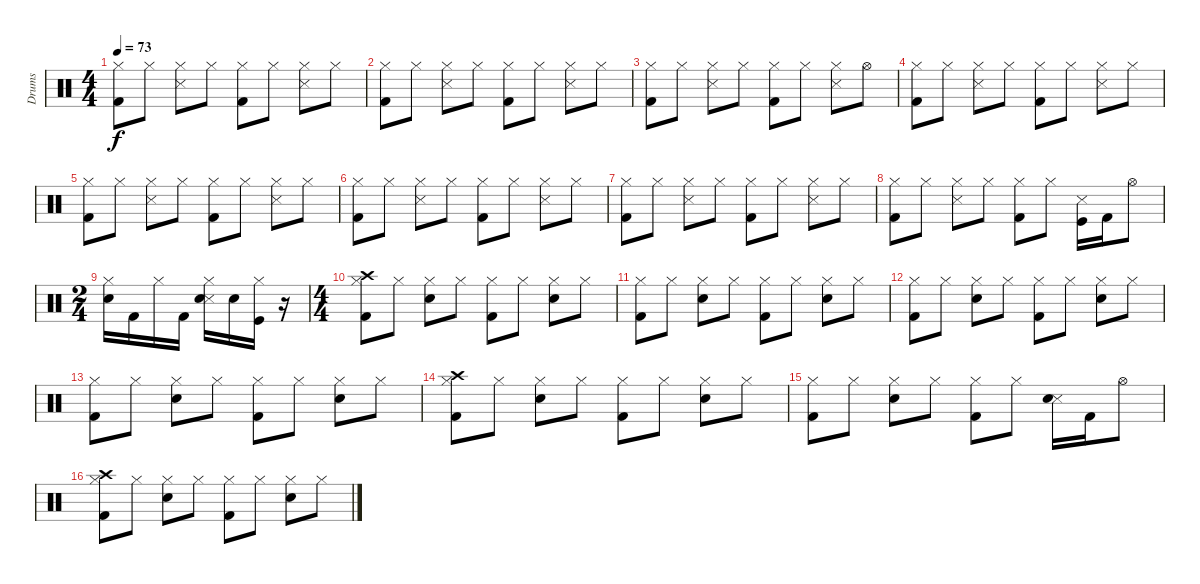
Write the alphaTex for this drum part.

\track ("Drums" "Drums") {instrument percussion}
\staff {score}
\articulation defaults
\ts (4 4)
\tempo 73
\clef neutral
\ks c
("Hi-Hat (closed)" "Kick (hit) 2").8{dy f} "Hi-Hat (closed)".8 ("Hi-Hat (closed)" "Snare (side stick) 3").8 "Hi-Hat (closed)".8 ("Hi-Hat (closed)" "Kick (hit) 2").8 "Hi-Hat (closed)".8 ("Hi-Hat (closed)" "Snare (side stick) 3").8 "Hi-Hat (closed)".8 |
("Hi-Hat (closed)" "Kick (hit) 2").8 "Hi-Hat (closed)".8 ("Hi-Hat (closed)" "Snare (side stick) 3").8 "Hi-Hat (closed)".8 ("Hi-Hat (closed)" "Kick (hit) 2").8 "Hi-Hat (closed)".8 ("Hi-Hat (closed)" "Snare (side stick) 3").8 "Hi-Hat (closed)".8 |
("Hi-Hat (closed)" "Kick (hit) 2").8 "Hi-Hat (closed)".8 ("Hi-Hat (closed)" "Snare (side stick) 3").8 "Hi-Hat (closed)".8 ("Hi-Hat (closed)" "Kick (hit) 2").8 "Hi-Hat (closed)".8 ("Hi-Hat (closed)" "Snare (side stick) 3").8 "Hi-Hat (open)".8 |
("Hi-Hat (closed)" "Kick (hit) 2").8 "Hi-Hat (closed)".8 ("Hi-Hat (closed)" "Snare (side stick) 3").8 "Hi-Hat (closed)".8 ("Hi-Hat (closed)" "Kick (hit) 2").8 "Hi-Hat (closed)".8 ("Hi-Hat (closed)" "Snare (side stick) 3").8 "Hi-Hat (closed)".8 |
("Hi-Hat (closed)" "Kick (hit) 2").8 "Hi-Hat (closed)".8 ("Hi-Hat (closed)" "Snare (side stick) 3").8 "Hi-Hat (closed)".8 ("Hi-Hat (closed)" "Kick (hit) 2").8 "Hi-Hat (closed)".8 ("Hi-Hat (closed)" "Snare (side stick) 3").8 "Hi-Hat (closed)".8 |
("Hi-Hat (closed)" "Kick (hit) 2").8 "Hi-Hat (closed)".8 ("Hi-Hat (closed)" "Snare (side stick) 3").8 "Hi-Hat (closed)".8 ("Hi-Hat (closed)" "Kick (hit) 2").8 "Hi-Hat (closed)".8 ("Hi-Hat (closed)" "Snare (side stick) 3").8 "Hi-Hat (closed)".8 |
("Hi-Hat (closed)" "Kick (hit) 2").8 "Hi-Hat (closed)".8 ("Hi-Hat (closed)" "Snare (side stick) 3").8 "Hi-Hat (closed)".8 ("Hi-Hat (closed)" "Kick (hit) 2").8 "Hi-Hat (closed)".8 ("Hi-Hat (closed)" "Snare (side stick) 3").8 "Hi-Hat (closed)".8 |
("Hi-Hat (closed)" "Kick (hit) 2").8 "Hi-Hat (closed)".8 ("Hi-Hat (closed)" "Snare (side stick) 3").8 "Hi-Hat (closed)".8 ("Hi-Hat (closed)" "Kick (hit) 2").8 "Hi-Hat (closed)".8 ("Snare (side stick) 3" "Kick (hit)").16 "Kick (hit) 2".16 "Hi-Hat (open)".8 |
\ts (2 4)
("Hi-Hat (closed)" "Electric Snare (hit)").16 "Kick (hit) 2".16 "Hi-Hat (closed)".16 "Kick (hit) 2".16 ("Hi-Hat (closed)" "Snare (side stick) 3" "Electric Snare (hit)").16 "Electric Snare (hit)".16 ("Hi-Hat (closed)" "Kick (hit)").16 r.16 |
\ts (4 4)
("Hi-Hat (closed)" "Kick (hit) 2" "Crash high (hit)").8 "Hi-Hat (closed)".8 ("Hi-Hat (closed)" "Electric Snare (hit)").8 "Hi-Hat (closed)".8 ("Hi-Hat (closed)" "Kick (hit) 2").8 "Hi-Hat (closed)".8 ("Hi-Hat (closed)" "Electric Snare (hit)").8 "Hi-Hat (closed)".8 |
("Hi-Hat (closed)" "Kick (hit) 2").8 "Hi-Hat (closed)".8 ("Hi-Hat (closed)" "Electric Snare (hit)").8 "Hi-Hat (closed)".8 ("Hi-Hat (closed)" "Kick (hit) 2").8 "Hi-Hat (closed)".8 ("Hi-Hat (closed)" "Electric Snare (hit)").8 "Hi-Hat (closed)".8 |
("Hi-Hat (closed)" "Kick (hit) 2").8 "Hi-Hat (closed)".8 ("Hi-Hat (closed)" "Electric Snare (hit)").8 "Hi-Hat (closed)".8 ("Hi-Hat (closed)" "Kick (hit) 2").8 "Hi-Hat (closed)".8 ("Hi-Hat (closed)" "Electric Snare (hit)").8 "Hi-Hat (closed)".8 |
("Hi-Hat (closed)" "Kick (hit) 2").8 "Hi-Hat (closed)".8 ("Hi-Hat (closed)" "Electric Snare (hit)").8 "Hi-Hat (closed)".8 ("Hi-Hat (closed)" "Kick (hit) 2").8 "Hi-Hat (closed)".8 ("Hi-Hat (closed)" "Electric Snare (hit)").8 "Hi-Hat (closed)".8 |
("Hi-Hat (closed)" "Kick (hit) 2" "Crash high (hit)").8 "Hi-Hat (closed)".8 ("Hi-Hat (closed)" "Electric Snare (hit)").8 "Hi-Hat (closed)".8 ("Hi-Hat (closed)" "Kick (hit) 2").8 "Hi-Hat (closed)".8 ("Hi-Hat (closed)" "Electric Snare (hit)").8 "Hi-Hat (closed)".8 |
("Hi-Hat (closed)" "Kick (hit) 2").8 "Hi-Hat (closed)".8 ("Hi-Hat (closed)" "Electric Snare (hit)").8 "Hi-Hat (closed)".8 ("Hi-Hat (closed)" "Kick (hit) 2").8 "Hi-Hat (closed)".8 ("Snare (side stick) 3" "Electric Snare (hit)").16 "Kick (hit) 2".16 "Hi-Hat (open)".8 |
("Hi-Hat (closed)" "Kick (hit) 2" "Crash high (hit)").8 "Hi-Hat (closed)".8 ("Hi-Hat (closed)" "Electric Snare (hit)").8 "Hi-Hat (closed)".8 ("Hi-Hat (closed)" "Kick (hit) 2").8 "Hi-Hat (closed)".8 ("Hi-Hat (closed)" "Electric Snare (hit)").8 "Hi-Hat (closed)".8
